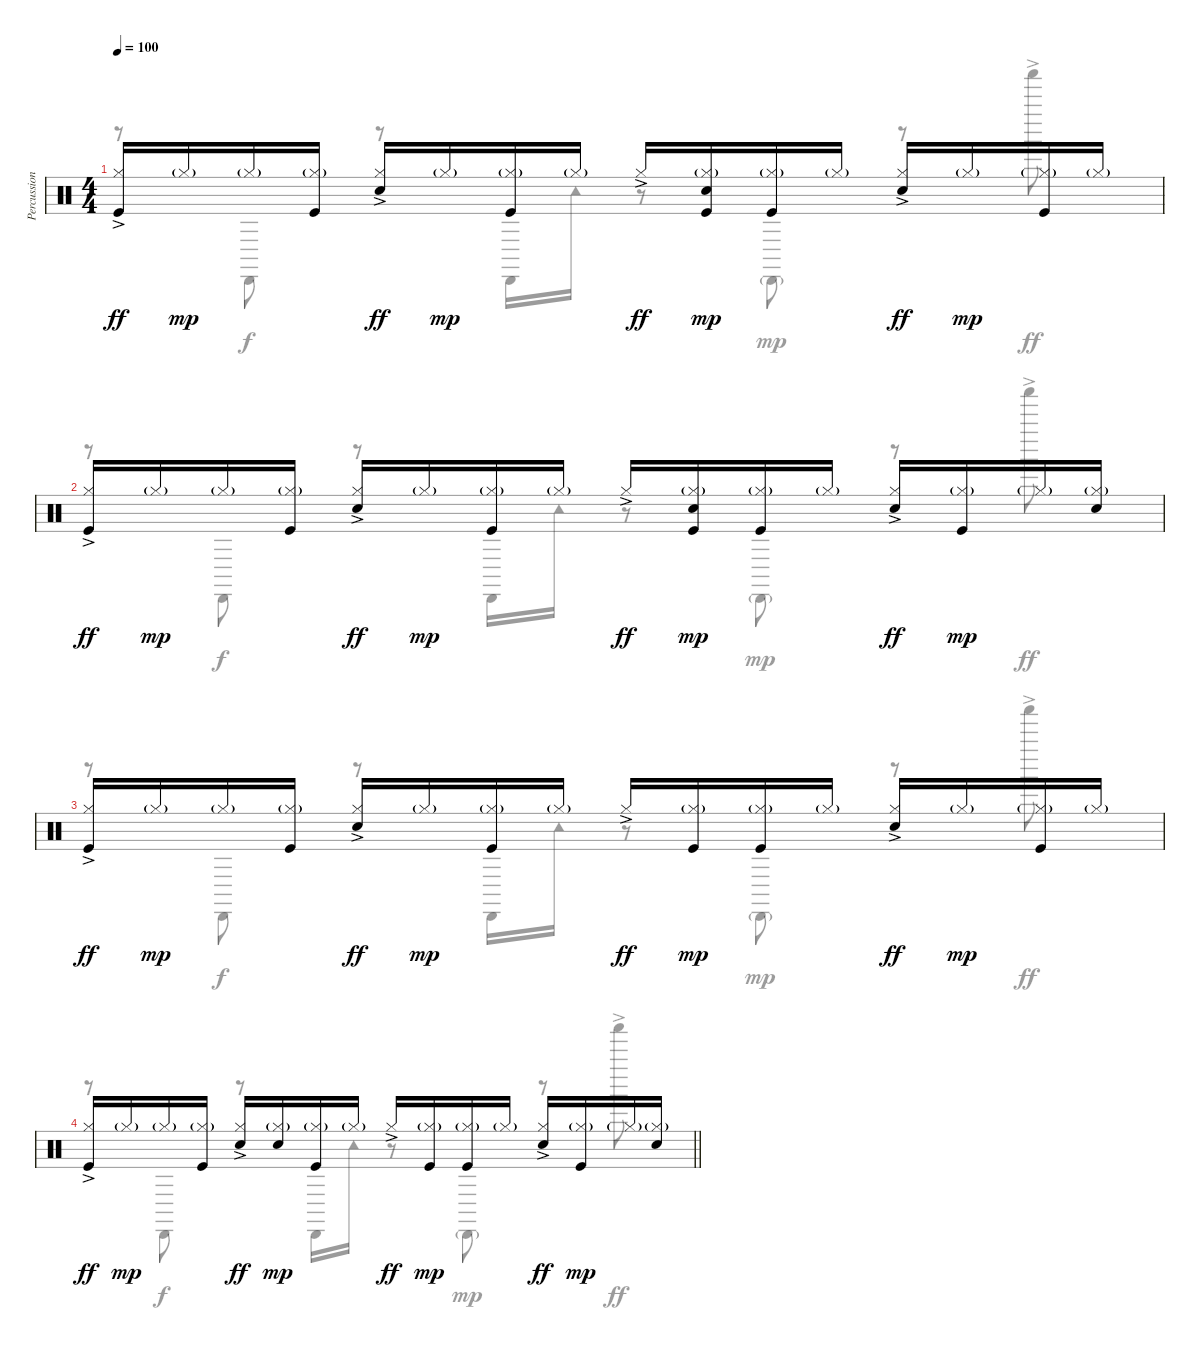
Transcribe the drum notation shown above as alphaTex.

\track ("Percussions" "Percussion") {instrument percussion}
\staff {score}
\articulation defaults
\voice
\ts (4 4)
\tempo 100
\clef neutral
\ks c
("Kick (hit)" "Hi-Hat (closed)"{ac}).16{dy ff} "Hi-Hat (closed)"{g}.16{dy mp} "Hi-Hat (closed)"{g}.16 ("Kick (hit)" "Hi-Hat (closed)"{g}).16 ("Electric Snare (hit)" "Hi-Hat (closed)"{ac}).16{dy ff} "Hi-Hat (closed)"{g}.16{dy mp} ("Kick (hit)" "Hi-Hat (closed)"{g}).16 "Hi-Hat (closed)"{g}.16 "Hi-Hat (closed)"{ac}.16{dy ff} ("Kick (hit)" "Electric Snare (hit)" "Hi-Hat (closed)"{g}).16{dy mp} ("Kick (hit)" "Hi-Hat (closed)"{g}).16 "Hi-Hat (closed)"{g}.16 ("Snare (hit) 2" "Hi-Hat (closed)"{ac}).16{dy ff} "Hi-Hat (closed)"{g}.16{dy mp} ("Kick (hit)" "Hi-Hat (closed)"{g}).16 "Hi-Hat (closed)"{g}.16 |
("Kick (hit)" "Hi-Hat (closed)"{ac}).16{dy ff} "Hi-Hat (closed)"{g}.16{dy mp} "Hi-Hat (closed)"{g}.16 ("Kick (hit)" "Hi-Hat (closed)"{g}).16 ("Electric Snare (hit)" "Hi-Hat (closed)"{ac}).16{dy ff} "Hi-Hat (closed)"{g}.16{dy mp} ("Kick (hit)" "Hi-Hat (closed)"{g}).16 "Hi-Hat (closed)"{g}.16 "Hi-Hat (closed)"{ac}.16{dy ff} ("Kick (hit)" "Electric Snare (hit)" "Hi-Hat (closed)"{g}).16{dy mp} ("Kick (hit)" "Hi-Hat (closed)"{g}).16 "Hi-Hat (closed)"{g}.16 ("Snare (hit) 2" "Hi-Hat (closed)"{ac}).16{dy ff} ("Kick (hit)" "Hi-Hat (closed)"{g}).16{dy mp} "Hi-Hat (closed)"{g}.16 ("Electric Snare (hit)" "Hi-Hat (closed)"{g}).16 |
("Kick (hit)" "Hi-Hat (closed)"{ac}).16{dy ff} "Hi-Hat (closed)"{g}.16{dy mp} "Hi-Hat (closed)"{g}.16 ("Kick (hit)" "Hi-Hat (closed)"{g}).16 ("Electric Snare (hit)" "Hi-Hat (closed)"{ac}).16{dy ff} "Hi-Hat (closed)"{g}.16{dy mp} ("Kick (hit)" "Hi-Hat (closed)"{g}).16 "Hi-Hat (closed)"{g}.16 "Hi-Hat (closed)"{ac}.16{dy ff} ("Kick (hit)" "Hi-Hat (closed)"{g}).16{dy mp} ("Kick (hit)" "Hi-Hat (closed)"{g}).16 "Hi-Hat (closed)"{g}.16 ("Snare (hit) 2" "Hi-Hat (closed)"{ac}).16{dy ff} "Hi-Hat (closed)"{g}.16{dy mp} ("Kick (hit)" "Hi-Hat (closed)"{g}).16 "Hi-Hat (closed)"{g}.16 |
\barLineRight lightlight
("Kick (hit)" "Hi-Hat (closed)"{ac}).16{dy ff} "Hi-Hat (closed)"{g}.16{dy mp} "Hi-Hat (closed)"{g}.16 ("Kick (hit)" "Hi-Hat (closed)"{g}).16 ("Electric Snare (hit)" "Hi-Hat (closed)"{ac}).16{dy ff} ("Electric Snare (hit)" "Hi-Hat (closed)"{g}).16{dy mp} ("Kick (hit)" "Hi-Hat (closed)"{g}).16 "Hi-Hat (closed)"{g}.16 "Hi-Hat (closed)"{ac}.16{dy ff} ("Kick (hit)" "Hi-Hat (closed)"{g}).16{dy mp} ("Kick (hit)" "Hi-Hat (closed)"{g}).16 "Hi-Hat (closed)"{g}.16 ("Electric Snare (hit)" "Hi-Hat (closed)"{ac}).16{dy ff} ("Kick (hit)" "Hi-Hat (closed)"{g}).16{dy mp} "Hi-Hat (closed)"{g}.16 ("Electric Snare (hit)" "Hi-Hat (closed)"{g}).16
\voice
\clef neutral
\ottava regular
\simile none
\ks c
r.8{dy ff} "Cabasa (hit)".8{dy f} r.8 "Cabasa (hit)".16 "Tambourine (hit)".16 r.8 "Cabasa (hit)"{g}.8{dy mp} r.8 "Shaker (hit)"{ac}.8{dy ff} |
r.8 "Cabasa (hit)".8{dy f} r.8 "Cabasa (hit)".16 "Tambourine (hit)".16 r.8 "Cabasa (hit)"{g}.8{dy mp} r.8 "Shaker (hit)"{ac}.8{dy ff} |
r.8 "Cabasa (hit)".8{dy f} r.8 "Cabasa (hit)".16 "Tambourine (hit)".16 r.8 "Cabasa (hit)"{g}.8{dy mp} r.8 "Shaker (hit)"{ac}.8{dy ff} |
\barLineRight lightlight
r.8 "Cabasa (hit)".8{dy f} r.8 "Cabasa (hit)".16 "Tambourine (hit)".16 r.8 "Cabasa (hit)"{g}.8{dy mp} r.8 "Shaker (hit)"{ac}.8{dy ff}
